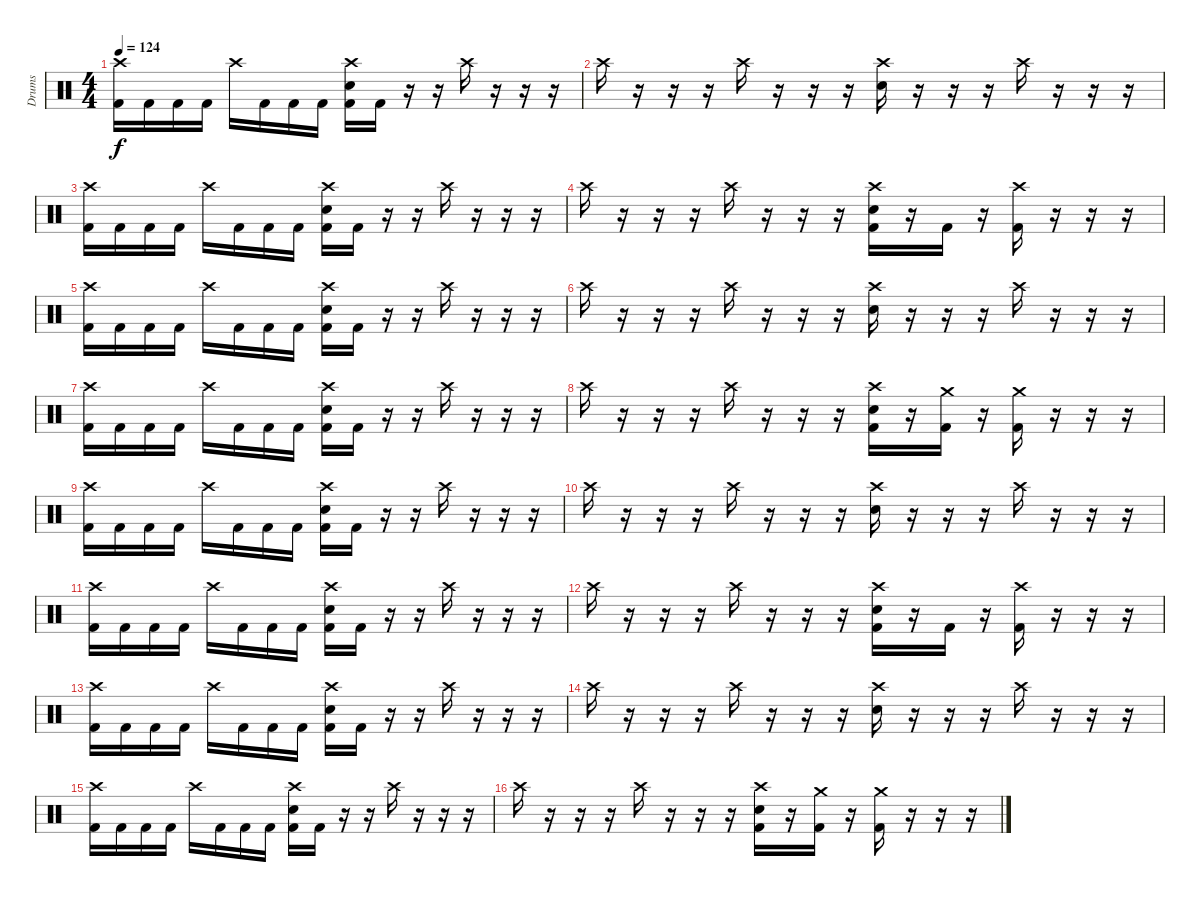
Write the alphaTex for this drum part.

\track ("Drums" "Drums") {instrument percussion}
\staff {score}
\articulation defaults
\ts (4 4)
\tempo 124
\clef neutral
\ks c
("Crash high (hit)" "Kick (hit) 2").16{dy f} "Kick (hit) 2".16 "Kick (hit) 2".16 "Kick (hit) 2".16 "Crash high (hit)".16 "Kick (hit) 2".16 "Kick (hit) 2".16 "Kick (hit) 2".16 ("Crash high (hit)" "Electric Snare (hit)" "Kick (hit) 2").16 "Kick (hit) 2".16 r.16 r.16 "Crash high (hit)".16 r.16 r.16 r.16 |
"Crash high (hit)".16 r.16 r.16 r.16 "Crash high (hit)".16 r.16 r.16 r.16 ("Crash high (hit)" "Electric Snare (hit)").16 r.16 r.16 r.16 "Crash high (hit)".16 r.16 r.16 r.16 |
("Crash high (hit)" "Kick (hit) 2").16 "Kick (hit) 2".16 "Kick (hit) 2".16 "Kick (hit) 2".16 "Crash high (hit)".16 "Kick (hit) 2".16 "Kick (hit) 2".16 "Kick (hit) 2".16 ("Crash high (hit)" "Electric Snare (hit)" "Kick (hit) 2").16 "Kick (hit) 2".16 r.16 r.16 "Crash high (hit)".16 r.16 r.16 r.16 |
"Crash high (hit)".16 r.16 r.16 r.16 "Crash high (hit)".16 r.16 r.16 r.16 ("Crash high (hit)" "Electric Snare (hit)" "Kick (hit) 2").16 r.16 "Kick (hit) 2".16 r.16 ("Crash high (hit)" "Kick (hit) 2").16 r.16 r.16 r.16 |
("Crash high (hit)" "Kick (hit) 2").16 "Kick (hit) 2".16 "Kick (hit) 2".16 "Kick (hit) 2".16 "Crash high (hit)".16 "Kick (hit) 2".16 "Kick (hit) 2".16 "Kick (hit) 2".16 ("Crash high (hit)" "Electric Snare (hit)" "Kick (hit) 2").16 "Kick (hit) 2".16 r.16 r.16 "Crash high (hit)".16 r.16 r.16 r.16 |
"Crash high (hit)".16 r.16 r.16 r.16 "Crash high (hit)".16 r.16 r.16 r.16 ("Crash high (hit)" "Electric Snare (hit)").16 r.16 r.16 r.16 "Crash high (hit)".16 r.16 r.16 r.16 |
("Crash high (hit)" "Kick (hit) 2").16 "Kick (hit) 2".16 "Kick (hit) 2".16 "Kick (hit) 2".16 "Crash high (hit)".16 "Kick (hit) 2".16 "Kick (hit) 2".16 "Kick (hit) 2".16 ("Crash high (hit)" "Electric Snare (hit)" "Kick (hit) 2").16 "Kick (hit) 2".16 r.16 r.16 "Crash high (hit)".16 r.16 r.16 r.16 |
"Crash high (hit)".16 r.16 r.16 r.16 "Crash high (hit)".16 r.16 r.16 r.16 ("Crash high (hit)" "Electric Snare (hit)" "Kick (hit) 2").16 r.16 ("Crash medium (hit)" "Kick (hit) 2").16 r.16 ("Crash medium (hit)" "Kick (hit) 2").16 r.16 r.16 r.16 |
("Crash high (hit)" "Kick (hit) 2").16 "Kick (hit) 2".16 "Kick (hit) 2".16 "Kick (hit) 2".16 "Crash high (hit)".16 "Kick (hit) 2".16 "Kick (hit) 2".16 "Kick (hit) 2".16 ("Crash high (hit)" "Electric Snare (hit)" "Kick (hit) 2").16 "Kick (hit) 2".16 r.16 r.16 "Crash high (hit)".16 r.16 r.16 r.16 |
"Crash high (hit)".16 r.16 r.16 r.16 "Crash high (hit)".16 r.16 r.16 r.16 ("Crash high (hit)" "Electric Snare (hit)").16 r.16 r.16 r.16 "Crash high (hit)".16 r.16 r.16 r.16 |
("Crash high (hit)" "Kick (hit) 2").16 "Kick (hit) 2".16 "Kick (hit) 2".16 "Kick (hit) 2".16 "Crash high (hit)".16 "Kick (hit) 2".16 "Kick (hit) 2".16 "Kick (hit) 2".16 ("Crash high (hit)" "Electric Snare (hit)" "Kick (hit) 2").16 "Kick (hit) 2".16 r.16 r.16 "Crash high (hit)".16 r.16 r.16 r.16 |
"Crash high (hit)".16 r.16 r.16 r.16 "Crash high (hit)".16 r.16 r.16 r.16 ("Crash high (hit)" "Electric Snare (hit)" "Kick (hit) 2").16 r.16 "Kick (hit) 2".16 r.16 ("Crash high (hit)" "Kick (hit) 2").16 r.16 r.16 r.16 |
("Crash high (hit)" "Kick (hit) 2").16 "Kick (hit) 2".16 "Kick (hit) 2".16 "Kick (hit) 2".16 "Crash high (hit)".16 "Kick (hit) 2".16 "Kick (hit) 2".16 "Kick (hit) 2".16 ("Crash high (hit)" "Electric Snare (hit)" "Kick (hit) 2").16 "Kick (hit) 2".16 r.16 r.16 "Crash high (hit)".16 r.16 r.16 r.16 |
"Crash high (hit)".16 r.16 r.16 r.16 "Crash high (hit)".16 r.16 r.16 r.16 ("Crash high (hit)" "Electric Snare (hit)").16 r.16 r.16 r.16 "Crash high (hit)".16 r.16 r.16 r.16 |
("Crash high (hit)" "Kick (hit) 2").16 "Kick (hit) 2".16 "Kick (hit) 2".16 "Kick (hit) 2".16 "Crash high (hit)".16 "Kick (hit) 2".16 "Kick (hit) 2".16 "Kick (hit) 2".16 ("Crash high (hit)" "Electric Snare (hit)" "Kick (hit) 2").16 "Kick (hit) 2".16 r.16 r.16 "Crash high (hit)".16 r.16 r.16 r.16 |
"Crash high (hit)".16 r.16 r.16 r.16 "Crash high (hit)".16 r.16 r.16 r.16 ("Crash high (hit)" "Electric Snare (hit)" "Kick (hit) 2").16 r.16 ("Crash medium (hit)" "Kick (hit) 2").16 r.16 ("Crash medium (hit)" "Kick (hit) 2").16 r.16 r.16 r.16
